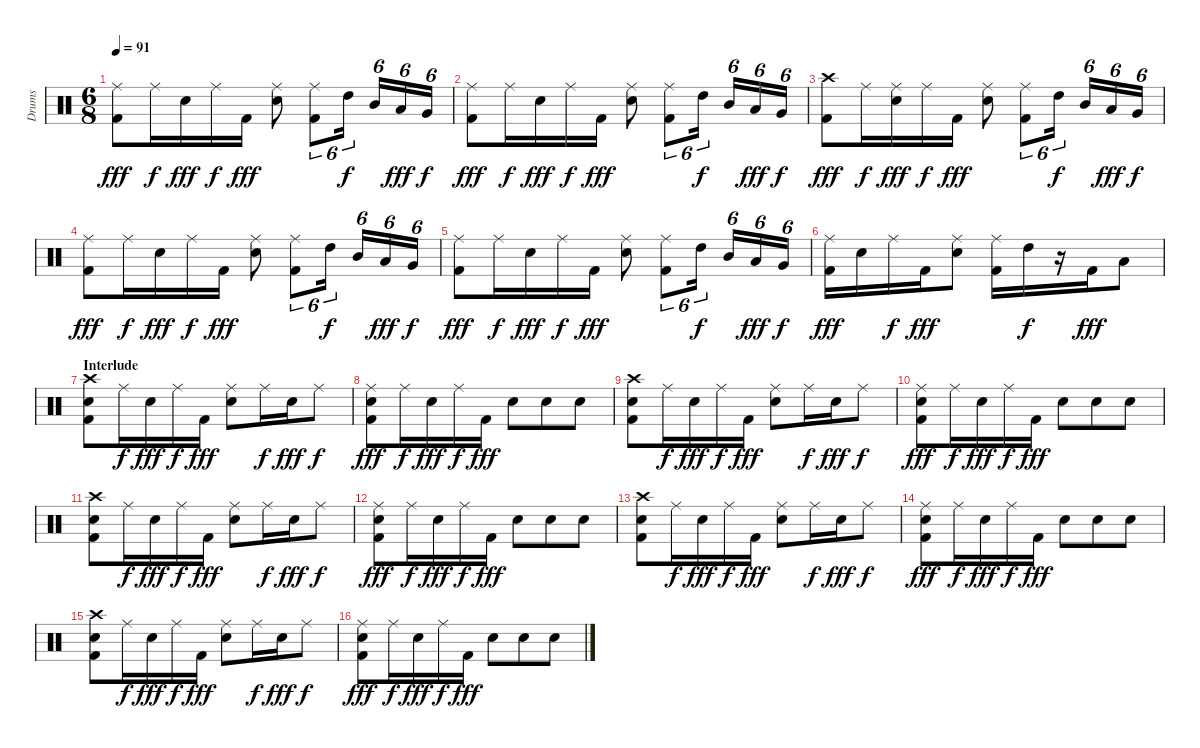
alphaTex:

\track ("Drums" "Drums") {instrument percussion}
\staff {score}
\articulation defaults
\ts (6 8)
\tempo 91
\clef neutral
\ks c
("Ride (middle)" "Kick (hit) 2").8{dy fff} "Ride (middle)".16{dy f} "Electric Snare (hit)".16{dy fff} "Ride (middle)".16{dy f} "Kick (hit) 2".16{dy fff} ("Ride (middle)" "Electric Snare (hit)").8 ("Ride (middle)" "Kick (hit) 2").8{tu (6 4)} "High Tom (hit)".16{tu (6 4) dy f} "Mid Tom (hit)".16{tu (6 4)} "Low Tom (hit)".16{tu (6 4) dy fff} "Very Low Tom (hit)".16{tu (6 4) dy f} |
("Ride (middle)" "Kick (hit) 2").8{dy fff} "Ride (middle)".16{dy f} "Electric Snare (hit)".16{dy fff} "Ride (middle)".16{dy f} "Kick (hit) 2".16{dy fff} ("Ride (middle)" "Electric Snare (hit)").8 ("Ride (middle)" "Kick (hit) 2").8{tu (6 4)} "High Tom (hit)".16{tu (6 4) dy f} "Mid Tom (hit)".16{tu (6 4)} "Low Tom (hit)".16{tu (6 4) dy fff} "Very Low Tom (hit)".16{tu (6 4) dy f} |
("Crash high (hit)" "Kick (hit) 2").8{dy fff} "Ride (middle)".16{dy f} ("Ride (middle)" "Electric Snare (hit)").16{dy fff} "Ride (middle)".16{dy f} "Kick (hit) 2".16{dy fff} ("Ride (middle)" "Electric Snare (hit)").8 ("Ride (middle)" "Kick (hit) 2").8{tu (6 4)} "High Tom (hit)".16{tu (6 4) dy f} "Mid Tom (hit)".16{tu (6 4)} "Low Tom (hit)".16{tu (6 4) dy fff} "Very Low Tom (hit)".16{tu (6 4) dy f} |
("Ride (middle)" "Kick (hit) 2").8{dy fff} "Ride (middle)".16{dy f} "Electric Snare (hit)".16{dy fff} "Ride (middle)".16{dy f} "Kick (hit) 2".16{dy fff} ("Ride (middle)" "Electric Snare (hit)").8 ("Ride (middle)" "Kick (hit) 2").8{tu (6 4)} "High Tom (hit)".16{tu (6 4) dy f} "Mid Tom (hit)".16{tu (6 4)} "Low Tom (hit)".16{tu (6 4) dy fff} "Very Low Tom (hit)".16{tu (6 4) dy f} |
("Ride (middle)" "Kick (hit) 2").8{dy fff} "Ride (middle)".16{dy f} "Electric Snare (hit)".16{dy fff} "Ride (middle)".16{dy f} "Kick (hit) 2".16{dy fff} ("Ride (middle)" "Electric Snare (hit)").8 ("Ride (middle)" "Kick (hit) 2").8{tu (6 4)} "High Tom (hit)".16{tu (6 4) dy f} "Mid Tom (hit)".16{tu (6 4)} "Low Tom (hit)".16{tu (6 4) dy fff} "Very Low Tom (hit)".16{tu (6 4) dy f} |
("Ride (middle)" "Kick (hit) 2").16{dy fff} "Electric Snare (hit)".16 "Ride (middle)".16{dy f} "Kick (hit) 2".16{dy fff} ("Ride (middle)" "Electric Snare (hit)").8 ("Ride (middle)" "Kick (hit) 2").16 "High Tom (hit)".16{dy f} r.16 "Kick (hit) 2".16{dy fff} "Low Tom (hit)".8 |
\section ("" "Interlude")
("Crash high (hit)" "Electric Snare (hit)" "Kick (hit) 2").8 "Ride (middle)".16{dy f} "Electric Snare (hit)".16{dy fff} "Ride (middle)".16{dy f} "Kick (hit) 2".16{dy fff} ("Ride (middle)" "Electric Snare (hit)").8 "Ride (middle)".16{dy f} "Electric Snare (hit)".16{dy fff} "Ride (middle)".8{dy f} |
("Ride (middle)" "Electric Snare (hit)" "Kick (hit) 2").8{dy fff} "Ride (middle)".16{dy f} "Electric Snare (hit)".16{dy fff} "Ride (middle)".16{dy f} "Kick (hit) 2".16{dy fff} "Electric Snare (hit)".8 "Electric Snare (hit)".8 "Electric Snare (hit)".8 |
("Crash high (hit)" "Electric Snare (hit)" "Kick (hit) 2").8 "Ride (middle)".16{dy f} "Electric Snare (hit)".16{dy fff} "Ride (middle)".16{dy f} "Kick (hit) 2".16{dy fff} ("Ride (middle)" "Electric Snare (hit)").8 "Ride (middle)".16{dy f} "Electric Snare (hit)".16{dy fff} "Ride (middle)".8{dy f} |
("Ride (middle)" "Electric Snare (hit)" "Kick (hit) 2").8{dy fff} "Ride (middle)".16{dy f} "Electric Snare (hit)".16{dy fff} "Ride (middle)".16{dy f} "Kick (hit) 2".16{dy fff} "Electric Snare (hit)".8 "Electric Snare (hit)".8 "Electric Snare (hit)".8 |
("Crash high (hit)" "Electric Snare (hit)" "Kick (hit) 2").8 "Ride (middle)".16{dy f} "Electric Snare (hit)".16{dy fff} "Ride (middle)".16{dy f} "Kick (hit) 2".16{dy fff} ("Ride (middle)" "Electric Snare (hit)").8 "Ride (middle)".16{dy f} "Electric Snare (hit)".16{dy fff} "Ride (middle)".8{dy f} |
("Ride (middle)" "Electric Snare (hit)" "Kick (hit) 2").8{dy fff} "Ride (middle)".16{dy f} "Electric Snare (hit)".16{dy fff} "Ride (middle)".16{dy f} "Kick (hit) 2".16{dy fff} "Electric Snare (hit)".8 "Electric Snare (hit)".8 "Electric Snare (hit)".8 |
("Crash high (hit)" "Electric Snare (hit)" "Kick (hit) 2").8 "Ride (middle)".16{dy f} "Electric Snare (hit)".16{dy fff} "Ride (middle)".16{dy f} "Kick (hit) 2".16{dy fff} ("Ride (middle)" "Electric Snare (hit)").8 "Ride (middle)".16{dy f} "Electric Snare (hit)".16{dy fff} "Ride (middle)".8{dy f} |
("Ride (middle)" "Electric Snare (hit)" "Kick (hit) 2").8{dy fff} "Ride (middle)".16{dy f} "Electric Snare (hit)".16{dy fff} "Ride (middle)".16{dy f} "Kick (hit) 2".16{dy fff} "Electric Snare (hit)".8 "Electric Snare (hit)".8 "Electric Snare (hit)".8 |
("Crash high (hit)" "Electric Snare (hit)" "Kick (hit) 2").8 "Ride (middle)".16{dy f} "Electric Snare (hit)".16{dy fff} "Ride (middle)".16{dy f} "Kick (hit) 2".16{dy fff} ("Ride (middle)" "Electric Snare (hit)").8 "Ride (middle)".16{dy f} "Electric Snare (hit)".16{dy fff} "Ride (middle)".8{dy f} |
("Ride (middle)" "Electric Snare (hit)" "Kick (hit) 2").8{dy fff} "Ride (middle)".16{dy f} "Electric Snare (hit)".16{dy fff} "Ride (middle)".16{dy f} "Kick (hit) 2".16{dy fff} "Electric Snare (hit)".8 "Electric Snare (hit)".8 "Electric Snare (hit)".8
